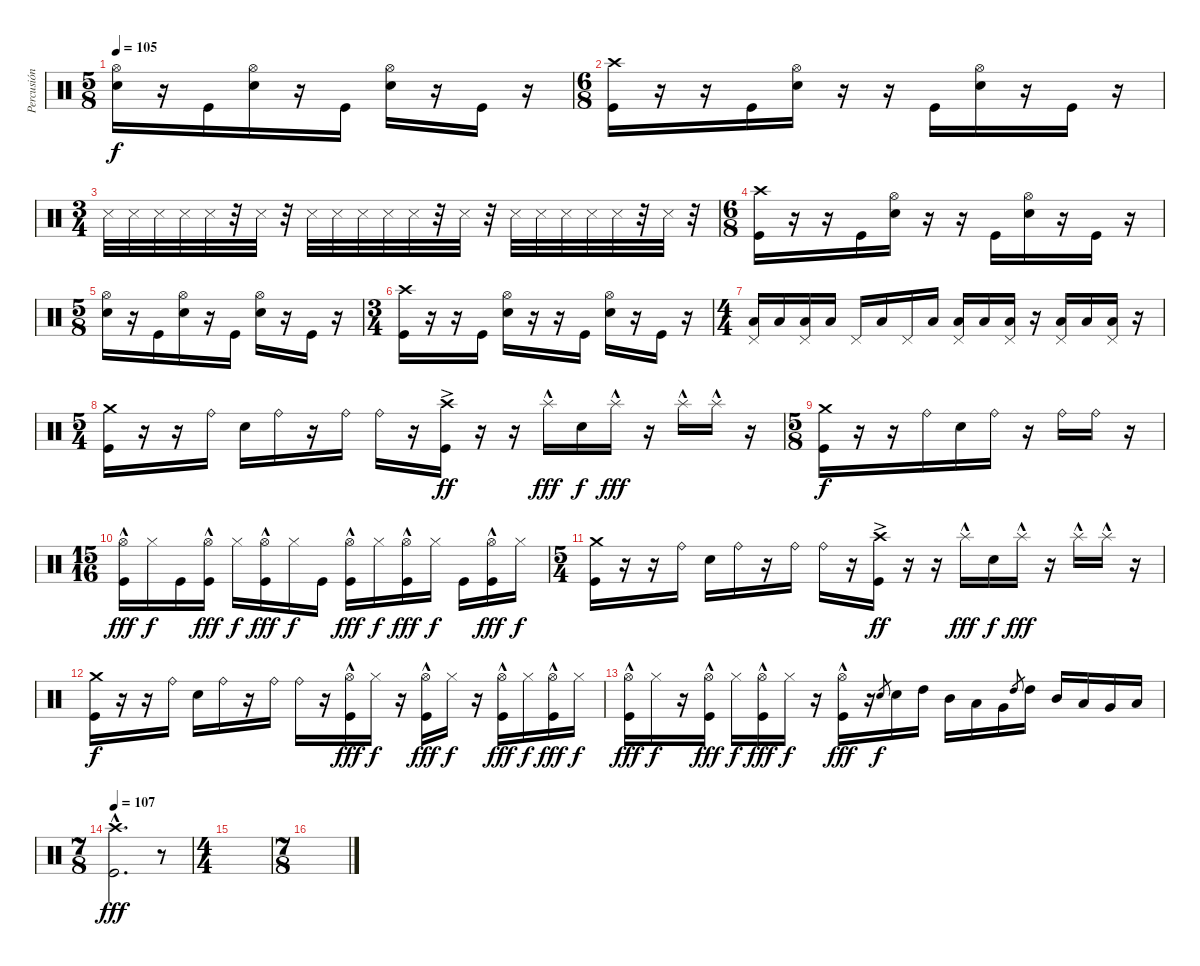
\track ("Percusión" "Percusión") {instrument percussion}
\staff {score}
\articulation defaults
\ts (5 8)
\tempo 105
\clef neutral
\ks c
("Hi-Hat (open)" "Snare (hit) 2").16{dy f} r.16 "Kick (hit)".16 ("Hi-Hat (open)" "Snare (hit) 2").16 r.16 "Kick (hit)".16 ("Hi-Hat (open)" "Snare (hit) 2").16 r.16 "Kick (hit)".16 r.16 |
\ts (6 8)
("Crash high (hit)" "Kick (hit)").16 r.16 r.16 "Kick (hit)".16 ("Hi-Hat (open)" "Snare (hit) 2").16 r.16 r.16 "Kick (hit)".16 ("Hi-Hat (open)" "Snare (hit) 2").16 r.16 "Kick (hit)".16 r.16 |
\ts (3 4)
"Snare (side stick) 3".32 "Snare (side stick) 3".32 "Snare (side stick) 3".32 "Snare (side stick) 3".32 "Snare (side stick) 3".32 r.32 "Snare (side stick) 3".32 r.32 "Snare (side stick) 3".32 "Snare (side stick) 3".32 "Snare (side stick) 3".32 "Snare (side stick) 3".32 "Snare (side stick) 3".32 r.32 "Snare (side stick) 3".32 r.32 "Snare (side stick) 3".32 "Snare (side stick) 3".32 "Snare (side stick) 3".32 "Snare (side stick) 3".32 "Snare (side stick) 3".32 r.32 "Snare (side stick) 3".32 r.32 |
\ts (6 8)
("Crash high (hit)" "Kick (hit)").16 r.16 r.16 "Kick (hit)".16 ("Hi-Hat (open)" "Snare (hit) 2").16 r.16 r.16 "Kick (hit)".16 ("Hi-Hat (open)" "Snare (hit) 2").16 r.16 "Kick (hit)".16 r.16 |
\ts (5 8)
("Hi-Hat (open)" "Snare (hit) 2").16 r.16 "Kick (hit)".16 ("Hi-Hat (open)" "Snare (hit) 2").16 r.16 "Kick (hit)".16 ("Hi-Hat (open)" "Snare (hit) 2").16 r.16 "Kick (hit)".16 r.16 |
\ts (3 4)
("Crash high (hit)" "Kick (hit)").16 r.16 r.16 "Kick (hit)".16 ("Hi-Hat (open)" "Snare (hit) 2").16 r.16 r.16 "Kick (hit)".16 ("Hi-Hat (open)" "Snare (hit) 2").16 r.16 "Kick (hit)".16 r.16 |
\ts (4 4)
("Pedal Hi-Hat (hit)" "Low Floor Tom (hit)").16 "Low Floor Tom (hit)".16 ("Pedal Hi-Hat (hit)" "Low Floor Tom (hit)").16 "Low Floor Tom (hit)".16 "Pedal Hi-Hat (hit)".16 "Low Floor Tom (hit)".16 "Pedal Hi-Hat (hit)".16 "Low Floor Tom (hit)".16 ("Pedal Hi-Hat (hit)" "Low Floor Tom (hit)").16 "Low Floor Tom (hit)".16 ("Pedal Hi-Hat (hit)" "Low Floor Tom (hit)").16 r.16 ("Pedal Hi-Hat (hit)" "Low Floor Tom (hit)").16 "Low Floor Tom (hit)".16 ("Pedal Hi-Hat (hit)" "Low Floor Tom (hit)").16 r.16 |
\ts (5 4)
("Crash medium (hit)" "Kick (hit)").16 r.16 r.16 "Ride (bell)".16 "Snare (hit) 2".16 "Ride (bell)".16 r.16 "Ride (bell)".16 "Ride (bell)".16 r.16 ("Crash high (hit)"{ac} "Kick (hit)").16{dy ff} r.16 r.16 "Splash (hit)"{hac}.16{dy fff} "Snare (hit) 2".16{dy f} "Splash (hit)"{hac}.16{dy fff} r.16 "Splash (hit)"{hac}.16 "Splash (hit)"{hac}.16 r.16 |
\ts (5 8)
("Crash medium (hit)" "Kick (hit)").16{dy f} r.16 r.16 "Ride (bell)".16 "Snare (hit) 2".16 "Ride (bell)".16 r.16 "Ride (bell)".16 "Ride (bell)".16 r.16 |
\ts (15 16)
("Hi-Hat (open)"{hac} "Kick (hit)").16{dy fff} "Hi-Hat (closed)".16{dy f} "Kick (hit)".16 ("Hi-Hat (open)"{hac} "Kick (hit)").16{dy fff} "Hi-Hat (closed)".16{dy f} ("Hi-Hat (open)"{hac} "Kick (hit)").16{dy fff} "Hi-Hat (closed)".16{dy f} "Kick (hit)".16 ("Hi-Hat (open)"{hac} "Kick (hit)").16{dy fff} "Hi-Hat (closed)".16{dy f} ("Hi-Hat (open)"{hac} "Kick (hit)").16{dy fff} "Hi-Hat (closed)".16{dy f} "Kick (hit)".16 ("Hi-Hat (open)"{hac} "Kick (hit)").16{dy fff} "Hi-Hat (closed)".16{dy f} |
\ts (5 4)
("Crash medium (hit)" "Kick (hit)").16 r.16 r.16 "Ride (bell)".16 "Snare (hit) 2".16 "Ride (bell)".16 r.16 "Ride (bell)".16 "Ride (bell)".16 r.16 ("Crash high (hit)"{ac} "Kick (hit)").16{dy ff} r.16 r.16 "Splash (hit)"{hac}.16{dy fff} "Snare (hit) 2".16{dy f} "Splash (hit)"{hac}.16{dy fff} r.16 "Splash (hit)"{hac}.16 "Splash (hit)"{hac}.16 r.16 |
("Crash medium (hit)" "Kick (hit)").16{dy f} r.16 r.16 "Ride (bell)".16 "Snare (hit) 2".16 "Ride (bell)".16 r.16 "Ride (bell)".16 "Ride (bell)".16 r.16 ("Hi-Hat (open)"{hac} "Kick (hit)").16{dy fff} "Hi-Hat (closed)".16{dy f} r.16 ("Hi-Hat (open)"{hac} "Kick (hit)").16{dy fff} "Hi-Hat (closed)".16{dy f} r.16 ("Hi-Hat (open)"{hac} "Kick (hit)").16{dy fff} "Hi-Hat (closed)".16{dy f} ("Hi-Hat (open)"{hac} "Kick (hit)").16{dy fff} "Hi-Hat (closed)".16{dy f} |
("Hi-Hat (open)"{hac} "Kick (hit)").16{dy fff} "Hi-Hat (closed)".16{dy f} r.16 ("Hi-Hat (open)"{hac} "Kick (hit)").16{dy fff} "Hi-Hat (closed)".16{dy f} ("Hi-Hat (open)"{hac} "Kick (hit)").16{dy fff} "Hi-Hat (closed)".16{dy f} r.16 ("Hi-Hat (open)"{hac} "Kick (hit)").16{dy fff} r.16 "Snare (hit) 2".8{gr dy f} "Snare (hit) 2".16 "High Tom (hit)".16 "Mid Tom (hit)".16 "Low Tom (hit)".16 "Very Low Tom (hit)".16 "High Tom (hit)".8{gr} "High Tom (hit)".16 "Mid Tom (hit)".16 "Low Tom (hit)".16 "Very Low Tom (hit)".16 "Low Floor Tom (hit)".16 |
\ts (7 8)
\tempo 107
("Crash high (hit)"{hac} "Kick (hit)").2{d dy fff} r.8 |
\ts (4 4)
|
\ts (7 8)
